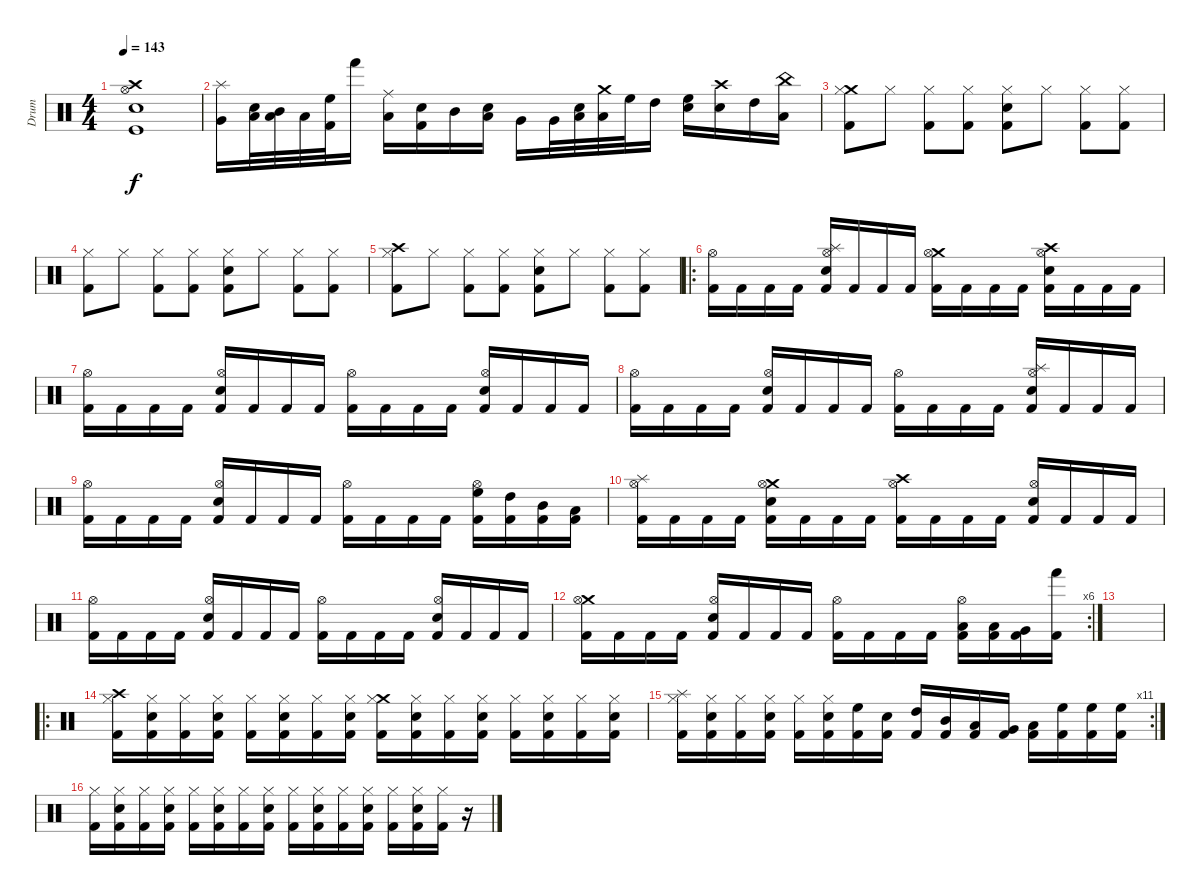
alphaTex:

\track ("Drum" "Drum") {instrument percussion}
\staff {score}
\articulation defaults
\ts (4 4)
\tempo 143
\clef neutral
\ks c
("Crash high (hit)" "Snare (hit) 2" "Kick (hit)" "Hi-Hat (open)").1{dy f} |
("Splash (hit)" "Very Low Tom (hit)").16 ("Snare (hit) 2" "Low Tom (hit)").32 ("Mid Tom (hit)" "Low Floor Tom (hit)").32 "Low Tom (hit)".32 ("Kick (hit) 2" "High Floor Tom (hit)").32 "Hand (hit)".16 ("Ride (middle)" "Low Tom (hit)").16 ("Snare (hit) 2" "Kick (hit) 2").16 "Mid Tom (hit)".16 ("Snare (hit) 2" "Low Tom (hit)").16 "Very Low Tom (hit)".16 "Very Low Tom (hit)".32 ("Snare (hit) 2" "Low Tom (hit)").32 ("Crash medium (hit)" "Low Floor Tom (hit)").32 "High Floor Tom (hit)".32 "High Tom (hit)".16 ("Snare (hit) 2" "High Floor Tom (hit)").16 ("Crash high (hit)" "Snare (hit) 2").16 "High Tom (hit)".16 ("China (hit)" "Low Tom (hit)").16 |
("Crash medium (hit)" "Kick (hit) 2" "Hi-Hat (closed)").8 "Hi-Hat (closed)".8 ("Kick (hit) 2" "Hi-Hat (closed)").8 ("Kick (hit) 2" "Hi-Hat (closed)").8 ("Snare (hit) 2" "Kick (hit) 2" "Hi-Hat (closed)").8 "Hi-Hat (closed)".8 ("Kick (hit) 2" "Hi-Hat (closed)").8 ("Kick (hit) 2" "Hi-Hat (closed)").8 |
("Kick (hit) 2" "Hi-Hat (closed)").8 "Hi-Hat (closed)".8 ("Kick (hit) 2" "Hi-Hat (closed)").8 ("Kick (hit) 2" "Hi-Hat (closed)").8 ("Snare (hit) 2" "Kick (hit) 2" "Hi-Hat (closed)").8 "Hi-Hat (closed)".8 ("Kick (hit) 2" "Hi-Hat (closed)").8 ("Kick (hit) 2" "Hi-Hat (closed)").8 |
("Crash high (hit)" "Kick (hit) 2" "Hi-Hat (closed)").8 "Hi-Hat (closed)".8 ("Kick (hit) 2" "Hi-Hat (closed)").8 ("Kick (hit) 2" "Hi-Hat (closed)").8 ("Snare (hit) 2" "Kick (hit) 2" "Hi-Hat (closed)").8 "Hi-Hat (closed)".8 ("Kick (hit) 2" "Hi-Hat (closed)").8 ("Kick (hit) 2" "Hi-Hat (closed)").8 |
\ro
("Kick (hit) 2" "Hi-Hat (open)").16 "Kick (hit) 2".16 "Kick (hit) 2".16 "Kick (hit) 2".16 ("Splash (hit)" "Snare (hit) 2" "Kick (hit) 2" "Hi-Hat (open)").16 "Kick (hit) 2".16 "Kick (hit) 2".16 "Kick (hit) 2".16 ("Crash medium (hit)" "Kick (hit) 2" "Hi-Hat (open)").16 "Kick (hit) 2".16 "Kick (hit) 2".16 "Kick (hit) 2".16 ("Crash high (hit)" "Snare (hit) 2" "Kick (hit) 2" "Hi-Hat (open)").16 "Kick (hit) 2".16 "Kick (hit) 2".16 "Kick (hit) 2".16 |
("Kick (hit) 2" "Hi-Hat (open)").16 "Kick (hit) 2".16 "Kick (hit) 2".16 "Kick (hit) 2".16 ("Snare (hit) 2" "Kick (hit) 2" "Hi-Hat (open)").16 "Kick (hit) 2".16 "Kick (hit) 2".16 "Kick (hit) 2".16 ("Kick (hit) 2" "Hi-Hat (open)").16 "Kick (hit) 2".16 "Kick (hit) 2".16 "Kick (hit) 2".16 ("Snare (hit) 2" "Kick (hit) 2" "Hi-Hat (open)").16 "Kick (hit) 2".16 "Kick (hit) 2".16 "Kick (hit) 2".16 |
("Kick (hit) 2" "Hi-Hat (open)").16 "Kick (hit) 2".16 "Kick (hit) 2".16 "Kick (hit) 2".16 ("Snare (hit) 2" "Kick (hit) 2" "Hi-Hat (open)").16 "Kick (hit) 2".16 "Kick (hit) 2".16 "Kick (hit) 2".16 ("Kick (hit) 2" "Hi-Hat (open)").16 "Kick (hit) 2".16 "Kick (hit) 2".16 "Kick (hit) 2".16 ("Splash (hit)" "Snare (hit) 2" "Kick (hit) 2" "Hi-Hat (open)").16 "Kick (hit) 2".16 "Kick (hit) 2".16 "Kick (hit) 2".16 |
("Kick (hit) 2" "Hi-Hat (open)").16 "Kick (hit) 2".16 "Kick (hit) 2".16 "Kick (hit) 2".16 ("Snare (hit) 2" "Kick (hit) 2" "Hi-Hat (open)").16 "Kick (hit) 2".16 "Kick (hit) 2".16 "Kick (hit) 2".16 ("Kick (hit) 2" "Hi-Hat (open)").16 "Kick (hit) 2".16 "Kick (hit) 2".16 "Kick (hit) 2".16 ("High Floor Tom (hit)" "Kick (hit) 2" "Hi-Hat (open)").16 ("High Tom (hit)" "Kick (hit) 2").16 ("Mid Tom (hit)" "Kick (hit) 2").16 ("Low Tom (hit)" "Kick (hit) 2").16 |
("Splash (hit)" "Kick (hit) 2" "Hi-Hat (open)").16 "Kick (hit) 2".16 "Kick (hit) 2".16 "Kick (hit) 2".16 ("Crash medium (hit)" "Snare (hit) 2" "Kick (hit) 2" "Hi-Hat (open)").16 "Kick (hit) 2".16 "Kick (hit) 2".16 "Kick (hit) 2".16 ("Crash high (hit)" "Kick (hit) 2" "Hi-Hat (open)").16 "Kick (hit) 2".16 "Kick (hit) 2".16 "Kick (hit) 2".16 ("Snare (hit) 2" "Kick (hit) 2" "Hi-Hat (open)").16 "Kick (hit) 2".16 "Kick (hit) 2".16 "Kick (hit) 2".16 |
("Kick (hit) 2" "Hi-Hat (open)").16 "Kick (hit) 2".16 "Kick (hit) 2".16 "Kick (hit) 2".16 ("Snare (hit) 2" "Kick (hit) 2" "Hi-Hat (open)").16 "Kick (hit) 2".16 "Kick (hit) 2".16 "Kick (hit) 2".16 ("Kick (hit) 2" "Hi-Hat (open)").16 "Kick (hit) 2".16 "Kick (hit) 2".16 "Kick (hit) 2".16 ("Snare (hit) 2" "Kick (hit) 2" "Hi-Hat (open)").16 "Kick (hit) 2".16 "Kick (hit) 2".16 "Kick (hit) 2".16 |
\rc 6
("Crash medium (hit)" "Kick (hit) 2" "Hi-Hat (open)").16 "Kick (hit) 2".16 "Kick (hit) 2".16 "Kick (hit) 2".16 ("Snare (hit) 2" "Kick (hit) 2" "Hi-Hat (open)").16 "Kick (hit) 2".16 "Kick (hit) 2".16 "Kick (hit) 2".16 ("Kick (hit) 2" "Hi-Hat (open)").16 "Kick (hit) 2".16 "Kick (hit) 2".16 "Kick (hit) 2".16 ("Low Floor Tom (hit)" "Kick (hit) 2" "Hi-Hat (open)").16 ("Low Tom (hit)" "Kick (hit) 2").16 ("Very Low Tom (hit)" "Kick (hit) 2").16 ("Hand (hit)" "Kick (hit) 2").16 |
|
\ro
("Crash high (hit)" "Kick (hit) 2" "Hi-Hat (closed)").16 ("Snare (hit) 2" "Kick (hit) 2" "Hi-Hat (closed)").16 ("Kick (hit) 2" "Hi-Hat (closed)").16 ("Snare (hit) 2" "Kick (hit) 2" "Hi-Hat (closed)").16 ("Kick (hit) 2" "Hi-Hat (closed)").16 ("Snare (hit) 2" "Kick (hit) 2" "Hi-Hat (closed)").16 ("Kick (hit) 2" "Hi-Hat (closed)").16 ("Snare (hit) 2" "Kick (hit) 2" "Hi-Hat (closed)").16 ("Crash medium (hit)" "Kick (hit) 2" "Hi-Hat (closed)").16 ("Snare (hit) 2" "Kick (hit) 2" "Hi-Hat (closed)").16 ("Kick (hit) 2" "Hi-Hat (closed)").16 ("Snare (hit) 2" "Kick (hit) 2" "Hi-Hat (closed)").16 ("Kick (hit) 2" "Hi-Hat (closed)").16 ("Snare (hit) 2" "Kick (hit) 2" "Hi-Hat (closed)").16 ("Kick (hit) 2" "Hi-Hat (closed)").16 ("Snare (hit) 2" "Kick (hit) 2" "Hi-Hat (closed)").16 |
\rc 11
("Splash (hit)" "Kick (hit) 2" "Hi-Hat (closed)").16 ("Snare (hit) 2" "Kick (hit) 2" "Hi-Hat (closed)").16 ("Kick (hit) 2" "Hi-Hat (closed)").16 ("Snare (hit) 2" "Kick (hit) 2" "Hi-Hat (closed)").16 ("Kick (hit) 2" "Hi-Hat (closed)").16 ("Snare (hit) 2" "Kick (hit) 2" "Hi-Hat (closed)").16 ("High Floor Tom (hit)" "Kick (hit) 2").16 ("Snare (hit) 2" "Kick (hit) 2").16 ("High Tom (hit)" "Kick (hit) 2").16 ("Mid Tom (hit)" "Kick (hit) 2").16 ("Low Tom (hit)" "Kick (hit) 2").16 ("Very Low Tom (hit)" "Kick (hit) 2").16 ("Low Floor Tom (hit)" "Kick (hit) 2").16 ("High Floor Tom (hit)" "Kick (hit) 2").16 ("High Floor Tom (hit)" "Kick (hit) 2").16 ("High Floor Tom (hit)" "Kick (hit) 2").16 |
("Kick (hit) 2" "Hi-Hat (closed)").16 ("Kick (hit) 2" "Snare (hit) 2" "Hi-Hat (closed)").16 ("Kick (hit) 2" "Hi-Hat (closed)").16 ("Kick (hit) 2" "Snare (hit) 2" "Hi-Hat (closed)").16 ("Kick (hit) 2" "Hi-Hat (closed)").16 ("Kick (hit) 2" "Snare (hit) 2" "Hi-Hat (closed)").16 ("Kick (hit) 2" "Hi-Hat (closed)").16 ("Kick (hit) 2" "Snare (hit) 2" "Hi-Hat (closed)").16 ("Kick (hit) 2" "Hi-Hat (closed)").16 ("Kick (hit) 2" "Snare (hit) 2" "Hi-Hat (closed)").16 ("Kick (hit) 2" "Hi-Hat (closed)").16 ("Kick (hit) 2" "Snare (hit) 2" "Hi-Hat (closed)").16 ("Kick (hit) 2" "Hi-Hat (closed)").16 ("Kick (hit) 2" "Snare (hit) 2" "Hi-Hat (closed)").16 ("Kick (hit) 2" "Hi-Hat (closed)").16 r.16
